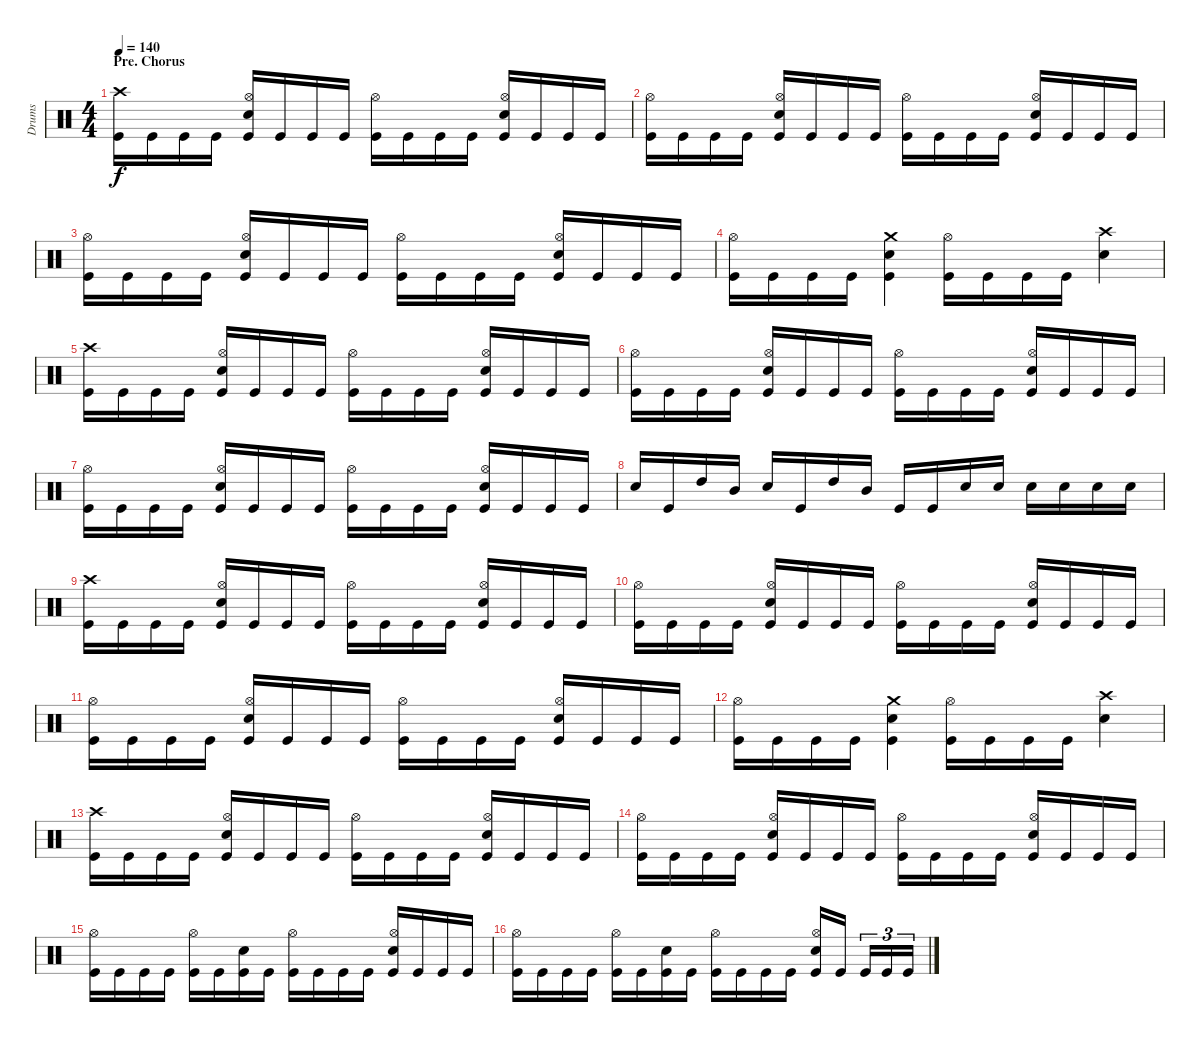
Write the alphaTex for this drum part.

\track ("Drums" "Drums") {instrument percussion}
\staff {score}
\articulation defaults
\ts (4 4)
\section ("" "Pre. Chorus")
\tempo 140
\clef neutral
\ks c
("Crash high (hit)" "Kick (hit)").16{dy f} "Kick (hit)".16 "Kick (hit)".16 "Kick (hit)".16 ("Hi-Hat (open)" "Electric Snare (hit)" "Kick (hit)").16 "Kick (hit)".16 "Kick (hit)".16 "Kick (hit)".16 ("Hi-Hat (open)" "Kick (hit)").16 "Kick (hit)".16 "Kick (hit)".16 "Kick (hit)".16 ("Hi-Hat (open)" "Electric Snare (hit)" "Kick (hit)").16 "Kick (hit)".16 "Kick (hit)".16 "Kick (hit)".16 |
("Hi-Hat (open)" "Kick (hit)").16 "Kick (hit)".16 "Kick (hit)".16 "Kick (hit)".16 ("Hi-Hat (open)" "Electric Snare (hit)" "Kick (hit)").16 "Kick (hit)".16 "Kick (hit)".16 "Kick (hit)".16 ("Hi-Hat (open)" "Kick (hit)").16 "Kick (hit)".16 "Kick (hit)".16 "Kick (hit)".16 ("Hi-Hat (open)" "Electric Snare (hit)" "Kick (hit)").16 "Kick (hit)".16 "Kick (hit)".16 "Kick (hit)".16 |
("Hi-Hat (open)" "Kick (hit)").16 "Kick (hit)".16 "Kick (hit)".16 "Kick (hit)".16 ("Hi-Hat (open)" "Electric Snare (hit)" "Kick (hit)").16 "Kick (hit)".16 "Kick (hit)".16 "Kick (hit)".16 ("Hi-Hat (open)" "Kick (hit)").16 "Kick (hit)".16 "Kick (hit)".16 "Kick (hit)".16 ("Hi-Hat (open)" "Electric Snare (hit)" "Kick (hit)").16 "Kick (hit)".16 "Kick (hit)".16 "Kick (hit)".16 |
("Hi-Hat (open)" "Kick (hit)").16 "Kick (hit)".16 "Kick (hit)".16 "Kick (hit)".16 ("Crash medium (hit)" "Electric Snare (hit)" "Kick (hit)").4 ("Hi-Hat (open)" "Kick (hit)").16 "Kick (hit)".16 "Kick (hit)".16 "Kick (hit)".16 ("Crash high (hit)" "Electric Snare (hit)").4 |
("Crash high (hit)" "Kick (hit)").16 "Kick (hit)".16 "Kick (hit)".16 "Kick (hit)".16 ("Hi-Hat (open)" "Electric Snare (hit)" "Kick (hit)").16 "Kick (hit)".16 "Kick (hit)".16 "Kick (hit)".16 ("Hi-Hat (open)" "Kick (hit)").16 "Kick (hit)".16 "Kick (hit)".16 "Kick (hit)".16 ("Hi-Hat (open)" "Electric Snare (hit)" "Kick (hit)").16 "Kick (hit)".16 "Kick (hit)".16 "Kick (hit)".16 |
("Hi-Hat (open)" "Kick (hit)").16 "Kick (hit)".16 "Kick (hit)".16 "Kick (hit)".16 ("Hi-Hat (open)" "Electric Snare (hit)" "Kick (hit)").16 "Kick (hit)".16 "Kick (hit)".16 "Kick (hit)".16 ("Hi-Hat (open)" "Kick (hit)").16 "Kick (hit)".16 "Kick (hit)".16 "Kick (hit)".16 ("Hi-Hat (open)" "Electric Snare (hit)" "Kick (hit)").16 "Kick (hit)".16 "Kick (hit)".16 "Kick (hit)".16 |
("Hi-Hat (open)" "Kick (hit)").16 "Kick (hit)".16 "Kick (hit)".16 "Kick (hit)".16 ("Hi-Hat (open)" "Electric Snare (hit)" "Kick (hit)").16 "Kick (hit)".16 "Kick (hit)".16 "Kick (hit)".16 ("Hi-Hat (open)" "Kick (hit)").16 "Kick (hit)".16 "Kick (hit)".16 "Kick (hit)".16 ("Hi-Hat (open)" "Electric Snare (hit)" "Kick (hit)").16 "Kick (hit)".16 "Kick (hit)".16 "Kick (hit)".16 |
"Electric Snare (hit)".16 "Kick (hit)".16 "High Tom (hit)".16 "Mid Tom (hit)".16 "Electric Snare (hit)".16 "Kick (hit)".16 "High Tom (hit)".16 "Mid Tom (hit)".16 "Kick (hit)".16 "Kick (hit)".16 "Electric Snare (hit)".16 "Electric Snare (hit)".16 "Electric Snare (hit)".16 "Electric Snare (hit)".16 "Electric Snare (hit)".16 "Electric Snare (hit)".16 |
("Crash high (hit)" "Kick (hit)").16 "Kick (hit)".16 "Kick (hit)".16 "Kick (hit)".16 ("Hi-Hat (open)" "Electric Snare (hit)" "Kick (hit)").16 "Kick (hit)".16 "Kick (hit)".16 "Kick (hit)".16 ("Hi-Hat (open)" "Kick (hit)").16 "Kick (hit)".16 "Kick (hit)".16 "Kick (hit)".16 ("Hi-Hat (open)" "Electric Snare (hit)" "Kick (hit)").16 "Kick (hit)".16 "Kick (hit)".16 "Kick (hit)".16 |
("Hi-Hat (open)" "Kick (hit)").16 "Kick (hit)".16 "Kick (hit)".16 "Kick (hit)".16 ("Hi-Hat (open)" "Electric Snare (hit)" "Kick (hit)").16 "Kick (hit)".16 "Kick (hit)".16 "Kick (hit)".16 ("Hi-Hat (open)" "Kick (hit)").16 "Kick (hit)".16 "Kick (hit)".16 "Kick (hit)".16 ("Hi-Hat (open)" "Electric Snare (hit)" "Kick (hit)").16 "Kick (hit)".16 "Kick (hit)".16 "Kick (hit)".16 |
("Hi-Hat (open)" "Kick (hit)").16 "Kick (hit)".16 "Kick (hit)".16 "Kick (hit)".16 ("Hi-Hat (open)" "Electric Snare (hit)" "Kick (hit)").16 "Kick (hit)".16 "Kick (hit)".16 "Kick (hit)".16 ("Hi-Hat (open)" "Kick (hit)").16 "Kick (hit)".16 "Kick (hit)".16 "Kick (hit)".16 ("Hi-Hat (open)" "Electric Snare (hit)" "Kick (hit)").16 "Kick (hit)".16 "Kick (hit)".16 "Kick (hit)".16 |
("Hi-Hat (open)" "Kick (hit)").16 "Kick (hit)".16 "Kick (hit)".16 "Kick (hit)".16 ("Crash medium (hit)" "Electric Snare (hit)" "Kick (hit)").4 ("Hi-Hat (open)" "Kick (hit)").16 "Kick (hit)".16 "Kick (hit)".16 "Kick (hit)".16 ("Crash high (hit)" "Electric Snare (hit)").4 |
("Crash high (hit)" "Kick (hit)").16 "Kick (hit)".16 "Kick (hit)".16 "Kick (hit)".16 ("Hi-Hat (open)" "Electric Snare (hit)" "Kick (hit)").16 "Kick (hit)".16 "Kick (hit)".16 "Kick (hit)".16 ("Hi-Hat (open)" "Kick (hit)").16 "Kick (hit)".16 "Kick (hit)".16 "Kick (hit)".16 ("Hi-Hat (open)" "Electric Snare (hit)" "Kick (hit)").16 "Kick (hit)".16 "Kick (hit)".16 "Kick (hit)".16 |
("Hi-Hat (open)" "Kick (hit)").16 "Kick (hit)".16 "Kick (hit)".16 "Kick (hit)".16 ("Hi-Hat (open)" "Electric Snare (hit)" "Kick (hit)").16 "Kick (hit)".16 "Kick (hit)".16 "Kick (hit)".16 ("Hi-Hat (open)" "Kick (hit)").16 "Kick (hit)".16 "Kick (hit)".16 "Kick (hit)".16 ("Hi-Hat (open)" "Electric Snare (hit)" "Kick (hit)").16 "Kick (hit)".16 "Kick (hit)".16 "Kick (hit)".16 |
("Hi-Hat (open)" "Kick (hit)").16 "Kick (hit)".16 "Kick (hit)".16 "Kick (hit)".16 ("Hi-Hat (open)" "Kick (hit)").16 "Kick (hit)".16 ("Electric Snare (hit)" "Kick (hit)").16 "Kick (hit)".16 ("Hi-Hat (open)" "Kick (hit)").16 "Kick (hit)".16 "Kick (hit)".16 "Kick (hit)".16 ("Hi-Hat (open)" "Electric Snare (hit)" "Kick (hit)").16 "Kick (hit)".16 "Kick (hit)".16 "Kick (hit)".16 |
("Hi-Hat (open)" "Kick (hit)").16 "Kick (hit)".16 "Kick (hit)".16 "Kick (hit)".16 ("Hi-Hat (open)" "Kick (hit)").16 "Kick (hit)".16 ("Electric Snare (hit)" "Kick (hit)").16 "Kick (hit)".16 ("Hi-Hat (open)" "Kick (hit)").16 "Kick (hit)".16 "Kick (hit)".16 "Kick (hit)".16 ("Hi-Hat (open)" "Electric Snare (hit)" "Kick (hit)").16 "Kick (hit)".16 "Kick (hit)".16{tu (3 2)} "Kick (hit)".16{tu (3 2)} "Kick (hit)".16{tu (3 2)}
